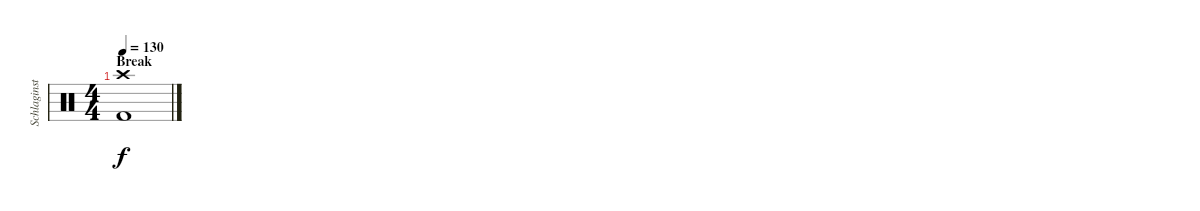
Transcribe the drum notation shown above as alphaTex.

\track ("Schlaginstrumente - Auswahl" "Schlaginst") {instrument percussion}
\staff {score}
\articulation defaults
\ts (4 4)
\section ("" "Break")
\tempo 130
\clef neutral
\ks c
("Crash high (hit)" "Kick (hit) 2").1{dy f}
